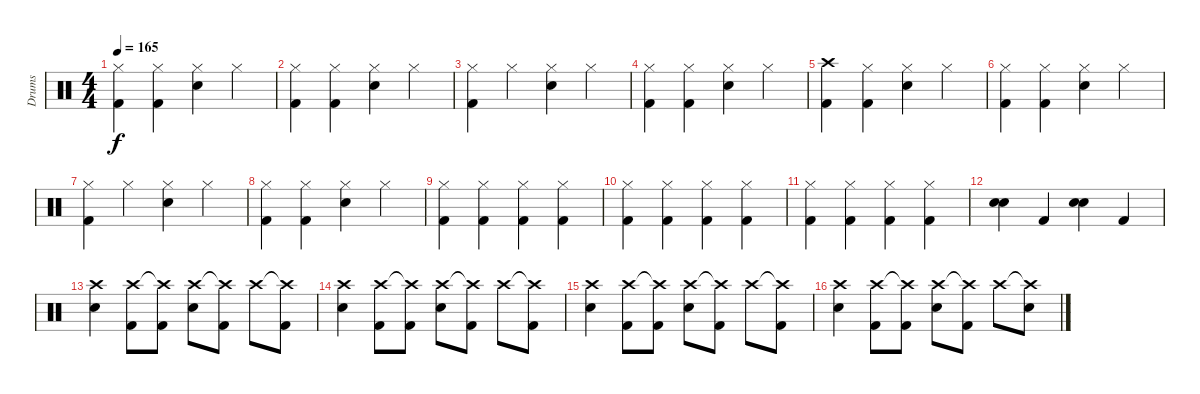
\track ("Drums" "Drums") {instrument percussion}
\staff {score}
\articulation defaults
\ts (4 4)
\tempo 165
\clef neutral
\ks c
("Hi-Hat (closed)" "Kick (hit) 2").4{dy f} ("Hi-Hat (closed)" "Kick (hit) 2").4 ("Hi-Hat (closed)" "Snare (hit) 2").4 "Hi-Hat (closed)".4 |
("Hi-Hat (closed)" "Kick (hit) 2").4 ("Hi-Hat (closed)" "Kick (hit) 2").4 ("Hi-Hat (closed)" "Snare (hit) 2").4 "Hi-Hat (closed)".4 |
("Hi-Hat (closed)" "Kick (hit) 2").4 "Hi-Hat (closed)".4 ("Hi-Hat (closed)" "Snare (hit) 2").4 "Hi-Hat (closed)".4 |
("Hi-Hat (closed)" "Kick (hit) 2").4 ("Hi-Hat (closed)" "Kick (hit) 2").4 ("Hi-Hat (closed)" "Snare (hit) 2").4 "Hi-Hat (closed)".4 |
("Crash high (hit)" "Kick (hit) 2").4 ("Hi-Hat (closed)" "Kick (hit) 2").4 ("Hi-Hat (closed)" "Snare (hit) 2").4 "Hi-Hat (closed)".4 |
("Hi-Hat (closed)" "Kick (hit) 2").4 ("Hi-Hat (closed)" "Kick (hit) 2").4 ("Hi-Hat (closed)" "Snare (hit) 2").4 "Hi-Hat (closed)".4 |
("Hi-Hat (closed)" "Kick (hit) 2").4 "Hi-Hat (closed)".4 ("Hi-Hat (closed)" "Snare (hit) 2").4 "Hi-Hat (closed)".4 |
("Hi-Hat (closed)" "Kick (hit) 2").4 ("Hi-Hat (closed)" "Kick (hit) 2").4 ("Hi-Hat (closed)" "Snare (hit) 2").4 "Hi-Hat (closed)".4 |
("Hi-Hat (closed)" "Kick (hit) 2").4 ("Hi-Hat (closed)" "Kick (hit) 2").4 ("Hi-Hat (closed)" "Kick (hit) 2").4 ("Hi-Hat (closed)" "Kick (hit) 2").4 |
("Hi-Hat (closed)" "Kick (hit) 2").4 ("Hi-Hat (closed)" "Kick (hit) 2").4 ("Hi-Hat (closed)" "Kick (hit) 2").4 ("Hi-Hat (closed)" "Kick (hit) 2").4 |
("Hi-Hat (closed)" "Kick (hit) 2").4 ("Hi-Hat (closed)" "Kick (hit) 2").4 ("Hi-Hat (closed)" "Kick (hit) 2").4 ("Hi-Hat (closed)" "Kick (hit) 2").4 |
("Snare (hit) 2" "Snare (hit) 2").4 "Kick (hit) 2".4 ("Snare (hit) 2" "Snare (hit) 2").4 "Kick (hit) 2".4 |
("Crash high (hit)" "Snare (hit) 2").4 ("Crash high (hit)" "Kick (hit) 2").8 ("Crash high (hit)"{t} "Kick (hit) 2").8 ("Crash high (hit)" "Snare (hit) 2").8 ("Crash high (hit)"{t} "Kick (hit) 2").8 "Crash high (hit)".8 ("Crash high (hit)"{t} "Kick (hit) 2").8 |
("Crash high (hit)" "Snare (hit) 2").4 ("Crash high (hit)" "Kick (hit) 2").8 ("Crash high (hit)"{t} "Kick (hit) 2").8 ("Crash high (hit)" "Snare (hit) 2").8 ("Crash high (hit)"{t} "Kick (hit) 2").8 "Crash high (hit)".8 ("Crash high (hit)"{t} "Kick (hit) 2").8 |
("Crash high (hit)" "Snare (hit) 2").4 ("Crash high (hit)" "Kick (hit) 2").8 ("Crash high (hit)"{t} "Kick (hit) 2").8 ("Crash high (hit)" "Snare (hit) 2").8 ("Crash high (hit)"{t} "Kick (hit) 2").8 "Crash high (hit)".8 ("Crash high (hit)"{t} "Kick (hit) 2").8 |
("Crash high (hit)" "Snare (hit) 2").4 ("Crash high (hit)" "Kick (hit) 2").8 ("Crash high (hit)"{t} "Kick (hit) 2").8 ("Crash high (hit)" "Snare (hit) 2").8 ("Crash high (hit)"{t} "Kick (hit) 2").8 "Crash high (hit)".8 ("Crash high (hit)"{t} "Snare (hit) 2").8
